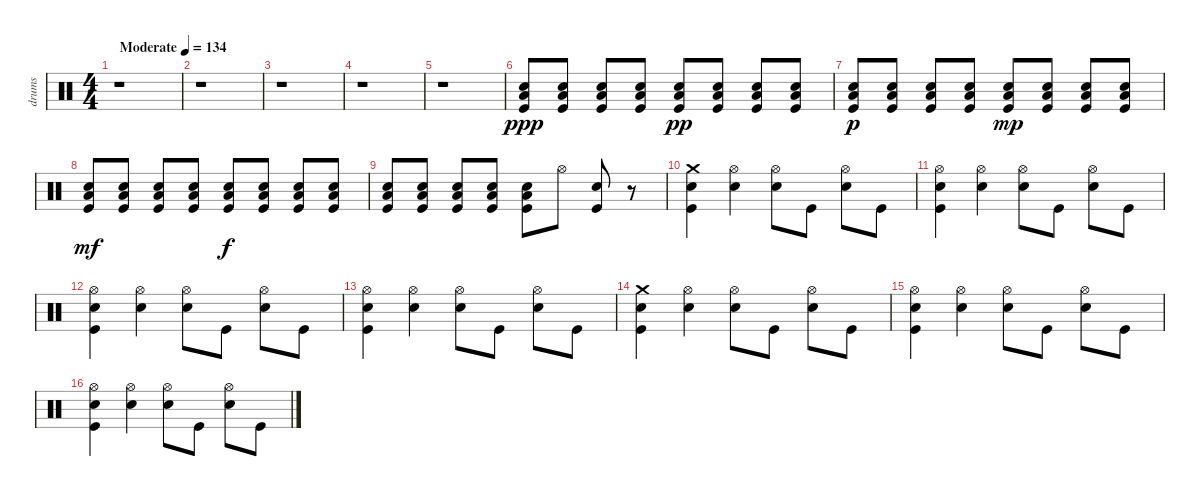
\track ("drums" "drums") {instrument percussion}
\staff {score}
\articulation defaults
\ts (4 4)
\tempo (134 "Moderate")
\clef neutral
\ks c
r.1{dy ppp} |
r.1 |
r.1 |
r.1 |
r.1 |
("Low Tom (hit)" "Snare (hit) 2" "Kick (hit)").8 ("Low Tom (hit)" "Snare (hit) 2" "Kick (hit)").8 ("Low Tom (hit)" "Snare (hit) 2" "Kick (hit)").8 ("Low Tom (hit)" "Snare (hit) 2" "Kick (hit)").8 ("Low Tom (hit)" "Snare (hit) 2" "Kick (hit)").8{dy pp} ("Low Tom (hit)" "Snare (hit) 2" "Kick (hit)").8 ("Low Tom (hit)" "Snare (hit) 2" "Kick (hit)").8 ("Low Tom (hit)" "Snare (hit) 2" "Kick (hit)").8 |
("Low Tom (hit)" "Snare (hit) 2" "Kick (hit)").8{dy p} ("Low Tom (hit)" "Snare (hit) 2" "Kick (hit)").8 ("Low Tom (hit)" "Snare (hit) 2" "Kick (hit)").8 ("Low Tom (hit)" "Snare (hit) 2" "Kick (hit)").8 ("Low Tom (hit)" "Snare (hit) 2" "Kick (hit)").8{dy mp} ("Low Tom (hit)" "Snare (hit) 2" "Kick (hit)").8 ("Low Tom (hit)" "Snare (hit) 2" "Kick (hit)").8 ("Low Tom (hit)" "Snare (hit) 2" "Kick (hit)").8 |
("Low Tom (hit)" "Snare (hit) 2" "Kick (hit)").8{dy mf} ("Low Tom (hit)" "Snare (hit) 2" "Kick (hit)").8 ("Low Tom (hit)" "Snare (hit) 2" "Kick (hit)").8 ("Low Tom (hit)" "Snare (hit) 2" "Kick (hit)").8 ("Low Tom (hit)" "Snare (hit) 2" "Kick (hit)").8{dy f} ("Low Tom (hit)" "Snare (hit) 2" "Kick (hit)").8 ("Low Tom (hit)" "Snare (hit) 2" "Kick (hit)").8 ("Low Tom (hit)" "Snare (hit) 2" "Kick (hit)").8 |
("Low Tom (hit)" "Snare (hit) 2" "Kick (hit)").8 ("Low Tom (hit)" "Snare (hit) 2" "Kick (hit)").8 ("Low Tom (hit)" "Snare (hit) 2" "Kick (hit)").8 ("Low Tom (hit)" "Snare (hit) 2" "Kick (hit)").8 ("Low Tom (hit)" "Snare (hit) 2" "Kick (hit)").8 "Hi-Hat (open)".8 ("Snare (hit) 2" "Kick (hit)").8 r.8 |
("Crash medium (hit)" "Snare (hit) 2" "Kick (hit)").4 ("Hi-Hat (open)" "Snare (hit) 2").4 ("Hi-Hat (open)" "Snare (hit) 2").8 "Kick (hit)".8 ("Hi-Hat (open)" "Snare (hit) 2").8 "Kick (hit)".8 |
("Hi-Hat (open)" "Snare (hit) 2" "Kick (hit)").4 ("Hi-Hat (open)" "Snare (hit) 2").4 ("Hi-Hat (open)" "Snare (hit) 2").8 "Kick (hit)".8 ("Hi-Hat (open)" "Snare (hit) 2").8 "Kick (hit)".8 |
("Hi-Hat (open)" "Snare (hit) 2" "Kick (hit)").4 ("Hi-Hat (open)" "Snare (hit) 2").4 ("Hi-Hat (open)" "Snare (hit) 2").8 "Kick (hit)".8 ("Hi-Hat (open)" "Snare (hit) 2").8 "Kick (hit)".8 |
("Hi-Hat (open)" "Snare (hit) 2" "Kick (hit)").4 ("Hi-Hat (open)" "Snare (hit) 2").4 ("Hi-Hat (open)" "Snare (hit) 2").8 "Kick (hit)".8 ("Hi-Hat (open)" "Snare (hit) 2").8 "Kick (hit)".8 |
("Crash medium (hit)" "Snare (hit) 2" "Kick (hit)").4 ("Hi-Hat (open)" "Snare (hit) 2").4 ("Hi-Hat (open)" "Snare (hit) 2").8 "Kick (hit)".8 ("Hi-Hat (open)" "Snare (hit) 2").8 "Kick (hit)".8 |
("Hi-Hat (open)" "Snare (hit) 2" "Kick (hit)").4 ("Hi-Hat (open)" "Snare (hit) 2").4 ("Hi-Hat (open)" "Snare (hit) 2").8 "Kick (hit)".8 ("Hi-Hat (open)" "Snare (hit) 2").8 "Kick (hit)".8 |
("Hi-Hat (open)" "Snare (hit) 2" "Kick (hit)").4 ("Hi-Hat (open)" "Snare (hit) 2").4 ("Hi-Hat (open)" "Snare (hit) 2").8 "Kick (hit)".8 ("Hi-Hat (open)" "Snare (hit) 2").8 "Kick (hit)".8
